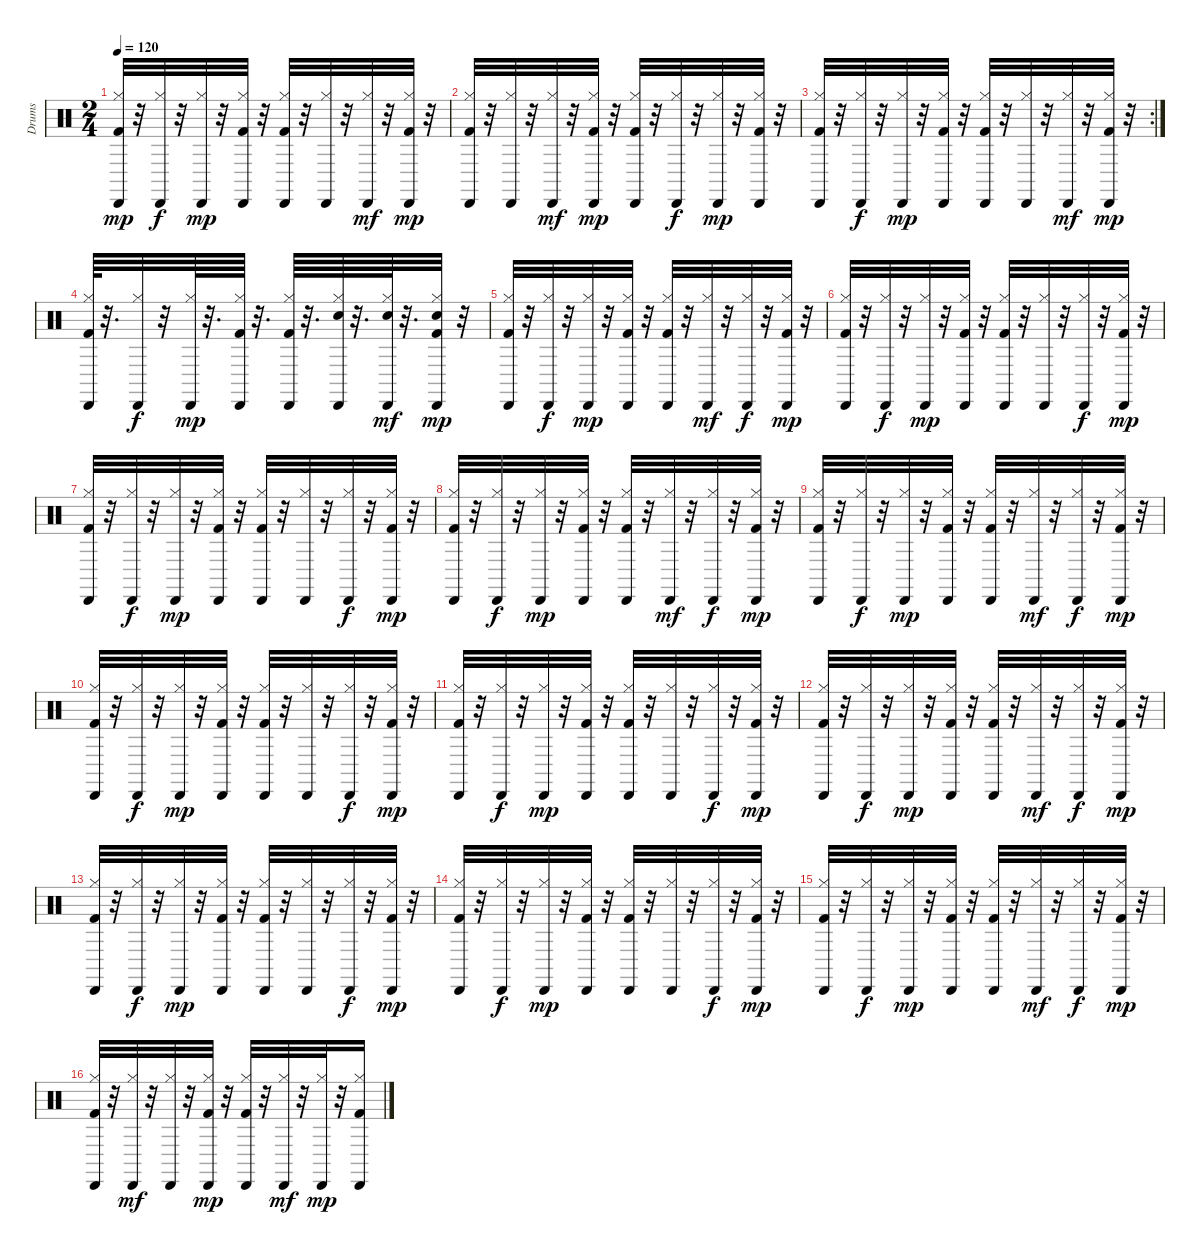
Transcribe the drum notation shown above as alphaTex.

\track ("Drums" "Drums") {instrument percussion}
\staff {score}
\articulation defaults
\ts (2 4)
\tempo 120
\clef neutral
\ks c
("Kick (hit) 2" "Hi-Hat (closed)" "Cabasa (hit)").32{dy mp} r.32 ("Hi-Hat (closed)" "Cabasa (hit)").32{dy f} r.32 ("Hi-Hat (closed)" "Cabasa (hit)").32{dy mp} r.32 ("Kick (hit) 2" "Hi-Hat (closed)" "Cabasa (hit)").32 r.32 ("Kick (hit) 2" "Hi-Hat (closed)" "Cabasa (hit)").32 r.32 ("Hi-Hat (closed)" "Cabasa (hit)").32 r.32 ("Hi-Hat (closed)" "Cabasa (hit)").32{dy mf} r.32 ("Kick (hit) 2" "Hi-Hat (closed)" "Cabasa (hit)").32{dy mp} r.32 |
("Kick (hit) 2" "Hi-Hat (closed)" "Cabasa (hit)").32 r.32 ("Hi-Hat (closed)" "Cabasa (hit)").32 r.32 ("Hi-Hat (closed)" "Cabasa (hit)").32{dy mf} r.32 ("Kick (hit) 2" "Hi-Hat (closed)" "Cabasa (hit)").32{dy mp} r.32 ("Kick (hit) 2" "Hi-Hat (closed)" "Cabasa (hit)").32 r.32 ("Hi-Hat (closed)" "Cabasa (hit)").32{dy f} r.32 ("Hi-Hat (closed)" "Cabasa (hit)").32{dy mp} r.32 ("Kick (hit) 2" "Hi-Hat (closed)" "Cabasa (hit)").32 r.32 |
\rc 2
("Kick (hit) 2" "Hi-Hat (closed)" "Cabasa (hit)").32 r.32 ("Hi-Hat (closed)" "Cabasa (hit)").32{dy f} r.32 ("Hi-Hat (closed)" "Cabasa (hit)").32{dy mp} r.32 ("Kick (hit) 2" "Hi-Hat (closed)" "Cabasa (hit)").32 r.32 ("Kick (hit) 2" "Hi-Hat (closed)" "Cabasa (hit)").32 r.32 ("Hi-Hat (closed)" "Cabasa (hit)").32 r.32 ("Hi-Hat (closed)" "Cabasa (hit)").32{dy mf} r.32 ("Kick (hit) 2" "Hi-Hat (closed)" "Cabasa (hit)").32{dy mp} r.32 |
("Kick (hit) 2" "Hi-Hat (closed)" "Cabasa (hit)").64 r.32{d} ("Hi-Hat (closed)" "Cabasa (hit)").32{dy f} r.32 ("Hi-Hat (closed)" "Cabasa (hit)").64{dy mp} r.32{d} ("Kick (hit) 2" "Hi-Hat (closed)" "Cabasa (hit)").64 r.32{d} ("Kick (hit) 2" "Hi-Hat (closed)" "Cabasa (hit)").64 r.32{d} ("Electric Snare (hit)" "Hi-Hat (closed)" "Cabasa (hit)").64 r.32{d} ("Snare (hit) 2" "Hi-Hat (closed)" "Cabasa (hit)").64{dy mf} r.32{d} ("Electric Snare (hit)" "Kick (hit) 2" "Hi-Hat (closed)" "Cabasa (hit)").32{dy mp} r.32 |
("Kick (hit) 2" "Hi-Hat (closed)" "Cabasa (hit)").32 r.32 ("Hi-Hat (closed)" "Cabasa (hit)").32{dy f} r.32 ("Hi-Hat (closed)" "Cabasa (hit)").32{dy mp} r.32 ("Kick (hit) 2" "Hi-Hat (closed)" "Cabasa (hit)").32 r.32 ("Kick (hit) 2" "Hi-Hat (closed)" "Cabasa (hit)").32 r.32 ("Hi-Hat (closed)" "Cabasa (hit)").32{dy mf} r.32 ("Hi-Hat (closed)" "Cabasa (hit)").32{dy f} r.32 ("Kick (hit) 2" "Hi-Hat (closed)" "Cabasa (hit)").32{dy mp} r.32 |
("Kick (hit) 2" "Hi-Hat (closed)" "Cabasa (hit)").32 r.32 ("Hi-Hat (closed)" "Cabasa (hit)").32{dy f} r.32 ("Hi-Hat (closed)" "Cabasa (hit)").32{dy mp} r.32 ("Kick (hit) 2" "Hi-Hat (closed)" "Cabasa (hit)").32 r.32 ("Kick (hit) 2" "Hi-Hat (closed)" "Cabasa (hit)").32 r.32 ("Hi-Hat (closed)" "Cabasa (hit)").32 r.32 ("Hi-Hat (closed)" "Cabasa (hit)").32{dy f} r.32 ("Kick (hit) 2" "Hi-Hat (closed)" "Cabasa (hit)").32{dy mp} r.32 |
("Kick (hit) 2" "Hi-Hat (closed)" "Cabasa (hit)").32 r.32 ("Hi-Hat (closed)" "Cabasa (hit)").32{dy f} r.32 ("Hi-Hat (closed)" "Cabasa (hit)").32{dy mp} r.32 ("Kick (hit) 2" "Hi-Hat (closed)" "Cabasa (hit)").32 r.32 ("Kick (hit) 2" "Hi-Hat (closed)" "Cabasa (hit)").32 r.32 ("Hi-Hat (closed)" "Cabasa (hit)").32 r.32 ("Hi-Hat (closed)" "Cabasa (hit)").32{dy f} r.32 ("Kick (hit) 2" "Hi-Hat (closed)" "Cabasa (hit)").32{dy mp} r.32 |
("Kick (hit) 2" "Hi-Hat (closed)" "Cabasa (hit)").32 r.32 ("Hi-Hat (closed)" "Cabasa (hit)").32{dy f} r.32 ("Hi-Hat (closed)" "Cabasa (hit)").32{dy mp} r.32 ("Kick (hit) 2" "Hi-Hat (closed)" "Cabasa (hit)").32 r.32 ("Kick (hit) 2" "Hi-Hat (closed)" "Cabasa (hit)").32 r.32 ("Hi-Hat (closed)" "Cabasa (hit)").32{dy mf} r.32 ("Hi-Hat (closed)" "Cabasa (hit)").32{dy f} r.32 ("Kick (hit) 2" "Hi-Hat (closed)" "Cabasa (hit)").32{dy mp} r.32 |
("Kick (hit) 2" "Hi-Hat (closed)" "Cabasa (hit)").32 r.32 ("Hi-Hat (closed)" "Cabasa (hit)").32{dy f} r.32 ("Hi-Hat (closed)" "Cabasa (hit)").32{dy mp} r.32 ("Kick (hit) 2" "Hi-Hat (closed)" "Cabasa (hit)").32 r.32 ("Kick (hit) 2" "Hi-Hat (closed)" "Cabasa (hit)").32 r.32 ("Hi-Hat (closed)" "Cabasa (hit)").32{dy mf} r.32 ("Hi-Hat (closed)" "Cabasa (hit)").32{dy f} r.32 ("Kick (hit) 2" "Hi-Hat (closed)" "Cabasa (hit)").32{dy mp} r.32 |
("Kick (hit) 2" "Hi-Hat (closed)" "Cabasa (hit)").32 r.32 ("Hi-Hat (closed)" "Cabasa (hit)").32{dy f} r.32 ("Hi-Hat (closed)" "Cabasa (hit)").32{dy mp} r.32 ("Kick (hit) 2" "Hi-Hat (closed)" "Cabasa (hit)").32 r.32 ("Kick (hit) 2" "Hi-Hat (closed)" "Cabasa (hit)").32 r.32 ("Hi-Hat (closed)" "Cabasa (hit)").32 r.32 ("Hi-Hat (closed)" "Cabasa (hit)").32{dy f} r.32 ("Kick (hit) 2" "Hi-Hat (closed)" "Cabasa (hit)").32{dy mp} r.32 |
("Kick (hit) 2" "Hi-Hat (closed)" "Cabasa (hit)").32 r.32 ("Hi-Hat (closed)" "Cabasa (hit)").32{dy f} r.32 ("Hi-Hat (closed)" "Cabasa (hit)").32{dy mp} r.32 ("Kick (hit) 2" "Hi-Hat (closed)" "Cabasa (hit)").32 r.32 ("Kick (hit) 2" "Hi-Hat (closed)" "Cabasa (hit)").32 r.32 ("Hi-Hat (closed)" "Cabasa (hit)").32 r.32 ("Hi-Hat (closed)" "Cabasa (hit)").32{dy f} r.32 ("Kick (hit) 2" "Hi-Hat (closed)" "Cabasa (hit)").32{dy mp} r.32 |
("Kick (hit) 2" "Hi-Hat (closed)" "Cabasa (hit)").32 r.32 ("Hi-Hat (closed)" "Cabasa (hit)").32{dy f} r.32 ("Hi-Hat (closed)" "Cabasa (hit)").32{dy mp} r.32 ("Kick (hit) 2" "Hi-Hat (closed)" "Cabasa (hit)").32 r.32 ("Kick (hit) 2" "Hi-Hat (closed)" "Cabasa (hit)").32 r.32 ("Hi-Hat (closed)" "Cabasa (hit)").32{dy mf} r.32 ("Hi-Hat (closed)" "Cabasa (hit)").32{dy f} r.32 ("Kick (hit) 2" "Hi-Hat (closed)" "Cabasa (hit)").32{dy mp} r.32 |
("Kick (hit) 2" "Hi-Hat (closed)" "Cabasa (hit)").32 r.32 ("Hi-Hat (closed)" "Cabasa (hit)").32{dy f} r.32 ("Hi-Hat (closed)" "Cabasa (hit)").32{dy mp} r.32 ("Kick (hit) 2" "Hi-Hat (closed)" "Cabasa (hit)").32 r.32 ("Kick (hit) 2" "Hi-Hat (closed)" "Cabasa (hit)").32 r.32 ("Hi-Hat (closed)" "Cabasa (hit)").32 r.32 ("Hi-Hat (closed)" "Cabasa (hit)").32{dy f} r.32 ("Kick (hit) 2" "Hi-Hat (closed)" "Cabasa (hit)").32{dy mp} r.32 |
("Kick (hit) 2" "Hi-Hat (closed)" "Cabasa (hit)").32 r.32 ("Hi-Hat (closed)" "Cabasa (hit)").32{dy f} r.32 ("Hi-Hat (closed)" "Cabasa (hit)").32{dy mp} r.32 ("Kick (hit) 2" "Hi-Hat (closed)" "Cabasa (hit)").32 r.32 ("Kick (hit) 2" "Hi-Hat (closed)" "Cabasa (hit)").32 r.32 ("Hi-Hat (closed)" "Cabasa (hit)").32 r.32 ("Hi-Hat (closed)" "Cabasa (hit)").32{dy f} r.32 ("Kick (hit) 2" "Hi-Hat (closed)" "Cabasa (hit)").32{dy mp} r.32 |
("Kick (hit) 2" "Hi-Hat (closed)" "Cabasa (hit)").32 r.32 ("Hi-Hat (closed)" "Cabasa (hit)").32{dy f} r.32 ("Hi-Hat (closed)" "Cabasa (hit)").32{dy mp} r.32 ("Kick (hit) 2" "Hi-Hat (closed)" "Cabasa (hit)").32 r.32 ("Kick (hit) 2" "Hi-Hat (closed)" "Cabasa (hit)").32 r.32 ("Hi-Hat (closed)" "Cabasa (hit)").32{dy mf} r.32 ("Hi-Hat (closed)" "Cabasa (hit)").32{dy f} r.32 ("Kick (hit) 2" "Hi-Hat (closed)" "Cabasa (hit)").32{dy mp} r.32 |
("Kick (hit) 2" "Hi-Hat (closed)" "Cabasa (hit)").32 r.32 ("Hi-Hat (closed)" "Cabasa (hit)").32{dy mf} r.32 ("Hi-Hat (closed)" "Cabasa (hit)").32 r.32 ("Kick (hit) 2" "Hi-Hat (closed)" "Cabasa (hit)").32{dy mp} r.32 ("Kick (hit) 2" "Hi-Hat (closed)" "Cabasa (hit)").32 r.32 ("Hi-Hat (closed)" "Cabasa (hit)").32{dy mf} r.32 ("Hi-Hat (closed)" "Cabasa (hit)").32{dy mp} r.32 ("Kick (hit) 2" "Hi-Hat (closed)" "Cabasa (hit)").16
